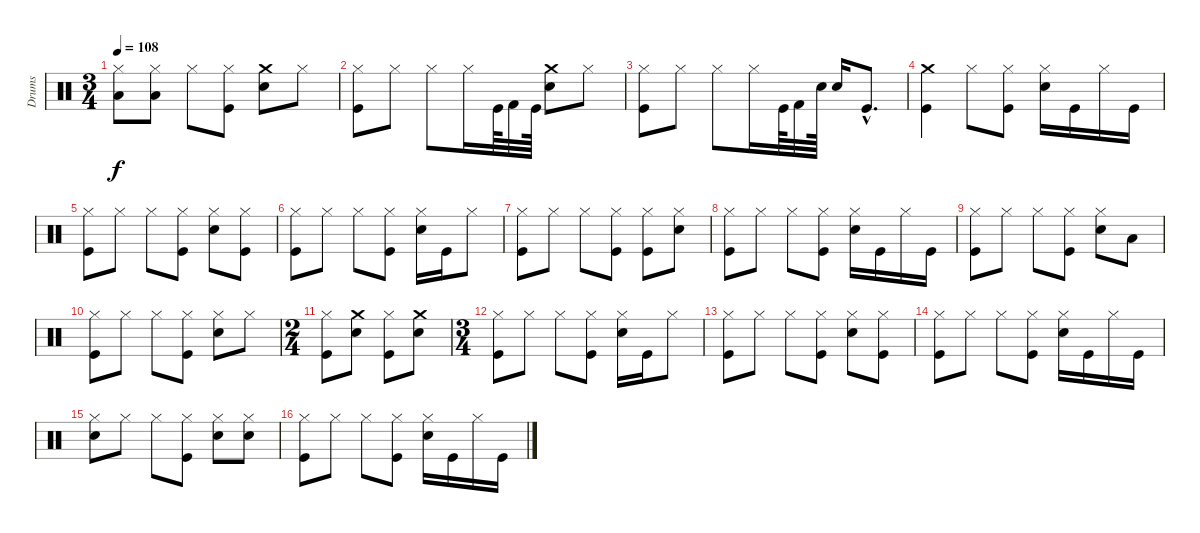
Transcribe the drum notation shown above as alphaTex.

\track ("Drums" "Drums") {instrument percussion}
\staff {score}
\articulation defaults
\ts (3 4)
\tempo 108
\clef neutral
\ks c
("Hi-Hat (closed)" "Low Tom (hit)").8{dy f} ("Hi-Hat (closed)" "Low Tom (hit)").8 "Hi-Hat (closed)".8 ("Kick (hit)" "Hi-Hat (closed)").8 ("Crash medium (hit)" "Snare (hit) 2").8 "Hi-Hat (closed)".8 |
("Hi-Hat (closed)" "Kick (hit)").8 "Hi-Hat (closed)".8 "Hi-Hat (closed)".8 "Hi-Hat (closed)".16 "Kick (hit)".64 "Kick (hit) 2".32 "Kick (hit)".64 ("Crash medium (hit)" "Snare (hit) 2").8 "Hi-Hat (closed)".8 |
("Hi-Hat (closed)" "Kick (hit)").8 "Hi-Hat (closed)".8 "Hi-Hat (closed)".8 "Hi-Hat (closed)".16 "Kick (hit)".64 "Kick (hit) 2".32 "Snare (hit) 2".64 "Snare (hit) 2".16 "Kick (hit)"{hac}.8{d} |
("Kick (hit)" "Crash medium (hit)").4 "Hi-Hat (closed)".8 ("Kick (hit)" "Hi-Hat (closed)").8 ("Hi-Hat (closed)" "Snare (hit) 2").16 "Kick (hit)".16 "Hi-Hat (closed)".16 "Kick (hit)".16 |
("Kick (hit)" "Hi-Hat (closed)").8 "Hi-Hat (closed)".8 "Hi-Hat (closed)".8 ("Hi-Hat (closed)" "Kick (hit)").8 ("Snare (hit) 2" "Hi-Hat (closed)").8 ("Hi-Hat (closed)" "Kick (hit)").8 |
("Hi-Hat (closed)" "Kick (hit)").8 "Hi-Hat (closed)".8 "Hi-Hat (closed)".8 ("Hi-Hat (closed)" "Kick (hit)").8 ("Snare (hit) 2" "Hi-Hat (closed)").16 "Kick (hit)".16 "Hi-Hat (closed)".8 |
("Hi-Hat (closed)" "Kick (hit)").8 "Hi-Hat (closed)".8 "Hi-Hat (closed)".8 ("Kick (hit)" "Hi-Hat (closed)").8 ("Hi-Hat (closed)" "Kick (hit)").8 ("Snare (hit) 2" "Hi-Hat (closed)").8 |
("Kick (hit)" "Hi-Hat (closed)").8 "Hi-Hat (closed)".8 "Hi-Hat (closed)".8 ("Kick (hit)" "Hi-Hat (closed)").8 ("Snare (hit) 2" "Hi-Hat (closed)").16 "Kick (hit)".16 "Hi-Hat (closed)".16 "Kick (hit)".16 |
("Hi-Hat (closed)" "Kick (hit)").8 "Hi-Hat (closed)".8 "Hi-Hat (closed)".8 ("Hi-Hat (closed)" "Kick (hit)").8 ("Snare (hit) 2" "Hi-Hat (closed)").8 "Low Tom (hit)".8 |
("Hi-Hat (closed)" "Kick (hit)").8 "Hi-Hat (closed)".8 "Hi-Hat (closed)".8 ("Kick (hit)" "Hi-Hat (closed)").8 ("Snare (hit) 2" "Hi-Hat (closed)").8 "Hi-Hat (closed)".8 |
\ts (2 4)
("Hi-Hat (closed)" "Kick (hit)").8 ("Snare (hit) 2" "Crash medium (hit)").8 ("Hi-Hat (closed)" "Kick (hit)").8 ("Crash medium (hit)" "Snare (hit) 2").8 |
\ts (3 4)
("Hi-Hat (closed)" "Kick (hit)").8 "Hi-Hat (closed)".8 "Hi-Hat (closed)".8 ("Hi-Hat (closed)" "Kick (hit)").8 ("Snare (hit) 2" "Hi-Hat (closed)").16 "Kick (hit)".16 "Hi-Hat (closed)".8 |
("Hi-Hat (closed)" "Kick (hit)").8 "Hi-Hat (closed)".8 "Hi-Hat (closed)".8 ("Kick (hit)" "Hi-Hat (closed)").8 ("Hi-Hat (closed)" "Snare (hit) 2").8 ("Kick (hit)" "Hi-Hat (closed)").8 |
("Hi-Hat (closed)" "Kick (hit)").8 "Hi-Hat (closed)".8 "Hi-Hat (closed)".8 ("Hi-Hat (closed)" "Kick (hit)").8 ("Snare (hit) 2" "Hi-Hat (closed)").16 "Kick (hit)".16 "Hi-Hat (closed)".16 "Kick (hit)".16 |
("Hi-Hat (closed)" "Snare (hit) 2").8 "Hi-Hat (closed)".8 "Hi-Hat (closed)".8 ("Kick (hit)" "Hi-Hat (closed)").8 ("Hi-Hat (closed)" "Snare (hit) 2").8 ("Snare (hit) 2" "Hi-Hat (closed)").8 |
("Hi-Hat (closed)" "Kick (hit)").8 "Hi-Hat (closed)".8 "Hi-Hat (closed)".8 ("Kick (hit)" "Hi-Hat (closed)").8 ("Hi-Hat (closed)" "Snare (hit) 2").16 "Kick (hit)".16 "Hi-Hat (closed)".16 "Kick (hit)".16
